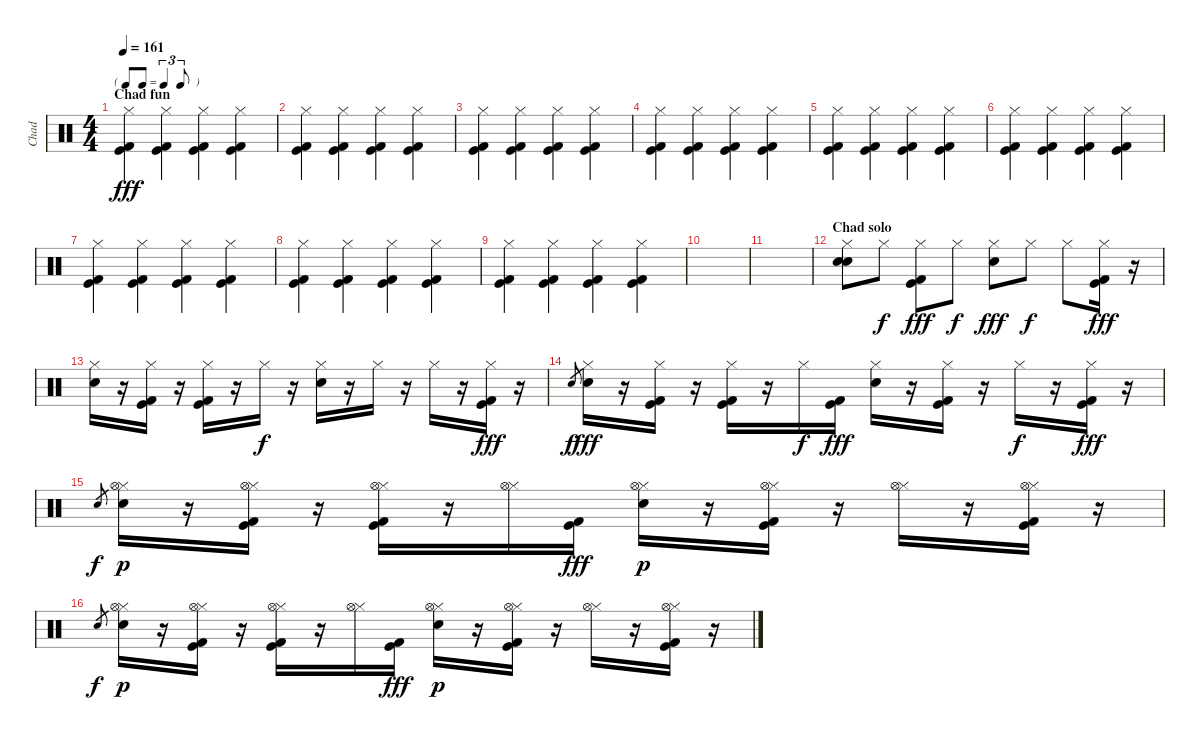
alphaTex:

\track ("Chad" "Chad") {instrument percussion}
\staff {score}
\articulation defaults
\ts (4 4)
\tf triplet8th
\section ("" "Chad fun")
\tempo 161
\clef neutral
\ks c
("Kick (hit) 2" "Kick (hit)" "Hi-Hat (closed)").4{dy fff} ("Kick (hit) 2" "Kick (hit)" "Hi-Hat (closed)").4 ("Kick (hit) 2" "Kick (hit)" "Hi-Hat (closed)").4 ("Kick (hit) 2" "Kick (hit)" "Hi-Hat (closed)").4 |
("Kick (hit) 2" "Kick (hit)" "Hi-Hat (closed)").4 ("Kick (hit) 2" "Kick (hit)" "Hi-Hat (closed)").4 ("Kick (hit) 2" "Kick (hit)" "Hi-Hat (closed)").4 ("Kick (hit) 2" "Kick (hit)" "Hi-Hat (closed)").4 |
("Kick (hit) 2" "Kick (hit)" "Hi-Hat (closed)").4 ("Kick (hit) 2" "Kick (hit)" "Hi-Hat (closed)").4 ("Kick (hit) 2" "Kick (hit)" "Hi-Hat (closed)").4 ("Kick (hit) 2" "Kick (hit)" "Hi-Hat (closed)").4 |
("Kick (hit) 2" "Kick (hit)" "Hi-Hat (closed)").4 ("Kick (hit) 2" "Kick (hit)" "Hi-Hat (closed)").4 ("Kick (hit) 2" "Kick (hit)" "Hi-Hat (closed)").4 ("Kick (hit) 2" "Kick (hit)" "Hi-Hat (closed)").4 |
("Kick (hit) 2" "Kick (hit)" "Hi-Hat (closed)").4 ("Kick (hit) 2" "Kick (hit)" "Hi-Hat (closed)").4 ("Kick (hit) 2" "Kick (hit)" "Hi-Hat (closed)").4 ("Kick (hit) 2" "Kick (hit)" "Hi-Hat (closed)").4 |
("Kick (hit) 2" "Kick (hit)" "Hi-Hat (closed)").4 ("Kick (hit) 2" "Kick (hit)" "Hi-Hat (closed)").4 ("Kick (hit) 2" "Kick (hit)" "Hi-Hat (closed)").4 ("Kick (hit) 2" "Kick (hit)" "Hi-Hat (closed)").4 |
("Kick (hit) 2" "Kick (hit)" "Hi-Hat (closed)").4 ("Kick (hit) 2" "Kick (hit)" "Hi-Hat (closed)").4 ("Kick (hit) 2" "Kick (hit)" "Hi-Hat (closed)").4 ("Kick (hit) 2" "Kick (hit)" "Hi-Hat (closed)").4 |
("Kick (hit) 2" "Kick (hit)" "Hi-Hat (closed)").4 ("Kick (hit) 2" "Kick (hit)" "Hi-Hat (closed)").4 ("Kick (hit) 2" "Kick (hit)" "Hi-Hat (closed)").4 ("Kick (hit) 2" "Kick (hit)" "Hi-Hat (closed)").4 |
("Kick (hit) 2" "Kick (hit)" "Hi-Hat (closed)").4 ("Kick (hit) 2" "Kick (hit)" "Hi-Hat (closed)").4 ("Kick (hit) 2" "Kick (hit)" "Hi-Hat (closed)").4 ("Kick (hit) 2" "Kick (hit)" "Hi-Hat (closed)").4 |
|
|
\section ("" "Chad solo")
("Hi-Hat (closed)" "Snare (hit) 2" "Snare (hit) 2").8 "Hi-Hat (closed)".8{dy f} ("Hi-Hat (closed)" "Kick (hit)" "Kick (hit) 2").8{dy fff} "Hi-Hat (closed)".8{dy f} ("Hi-Hat (closed)" "Snare (hit) 2").8{dy fff} "Hi-Hat (closed)".8{dy f} "Hi-Hat (closed)".8 ("Hi-Hat (closed)" "Kick (hit)" "Kick (hit) 2").16{dy fff} r.16 |
("Hi-Hat (closed)" "Snare (hit) 2").16 r.16 ("Hi-Hat (closed)" "Kick (hit)" "Kick (hit) 2").16 r.16 ("Hi-Hat (closed)" "Kick (hit)" "Kick (hit) 2").16 r.16 "Hi-Hat (closed)".16{dy f} r.16 ("Hi-Hat (closed)" "Snare (hit) 2").16 r.16 "Hi-Hat (closed)".16 r.16 "Hi-Hat (closed)".16 r.16 ("Hi-Hat (closed)" "Kick (hit) 2" "Kick (hit)").16{dy fff} r.16 |
"Snare (hit) 2".8{gr dy f} ("Hi-Hat (closed)" "Snare (hit) 2").16{dy fff} r.16 ("Hi-Hat (closed)" "Kick (hit) 2" "Kick (hit)").16 r.16 ("Hi-Hat (closed)" "Kick (hit) 2" "Kick (hit)").16 r.16 "Hi-Hat (closed)".16{dy f} ("Kick (hit) 2" "Kick (hit)").16{dy fff} ("Hi-Hat (closed)" "Snare (hit) 2").16 r.16 ("Hi-Hat (closed)" "Kick (hit)" "Kick (hit) 2").16 r.16 "Hi-Hat (closed)".16{dy f} r.16 ("Hi-Hat (closed)" "Kick (hit)" "Kick (hit) 2").16{dy fff} r.16 |
"Snare (hit) 2".8{gr dy f} ("Hi-Hat (closed)" "Snare (hit) 2" "Hi-Hat (open)").16{dy p} r.16 ("Hi-Hat (closed)" "Kick (hit) 2" "Kick (hit)" "Hi-Hat (open)").16 r.16 ("Hi-Hat (closed)" "Kick (hit) 2" "Kick (hit)" "Hi-Hat (open)").16 r.16 ("Hi-Hat (closed)" "Hi-Hat (open)").16 ("Kick (hit) 2" "Kick (hit)").16{dy fff} ("Hi-Hat (closed)" "Snare (hit) 2" "Hi-Hat (open)").16{dy p} r.16 ("Hi-Hat (closed)" "Kick (hit)" "Kick (hit) 2" "Hi-Hat (open)").16 r.16 ("Hi-Hat (closed)" "Hi-Hat (open)").16 r.16 ("Hi-Hat (closed)" "Kick (hit)" "Kick (hit) 2" "Hi-Hat (open)").16 r.16 |
"Snare (hit) 2".8{gr dy f} ("Hi-Hat (closed)" "Snare (hit) 2" "Hi-Hat (open)").16{dy p} r.16 ("Hi-Hat (closed)" "Kick (hit) 2" "Kick (hit)" "Hi-Hat (open)").16 r.16 ("Hi-Hat (closed)" "Kick (hit) 2" "Kick (hit)" "Hi-Hat (open)").16 r.16 ("Hi-Hat (closed)" "Hi-Hat (open)").16 ("Kick (hit) 2" "Kick (hit)").16{dy fff} ("Hi-Hat (closed)" "Snare (hit) 2" "Hi-Hat (open)").16{dy p} r.16 ("Hi-Hat (closed)" "Kick (hit)" "Kick (hit) 2" "Hi-Hat (open)").16 r.16 ("Hi-Hat (closed)" "Hi-Hat (open)").16 r.16 ("Hi-Hat (closed)" "Kick (hit)" "Kick (hit) 2" "Hi-Hat (open)").16 r.16
